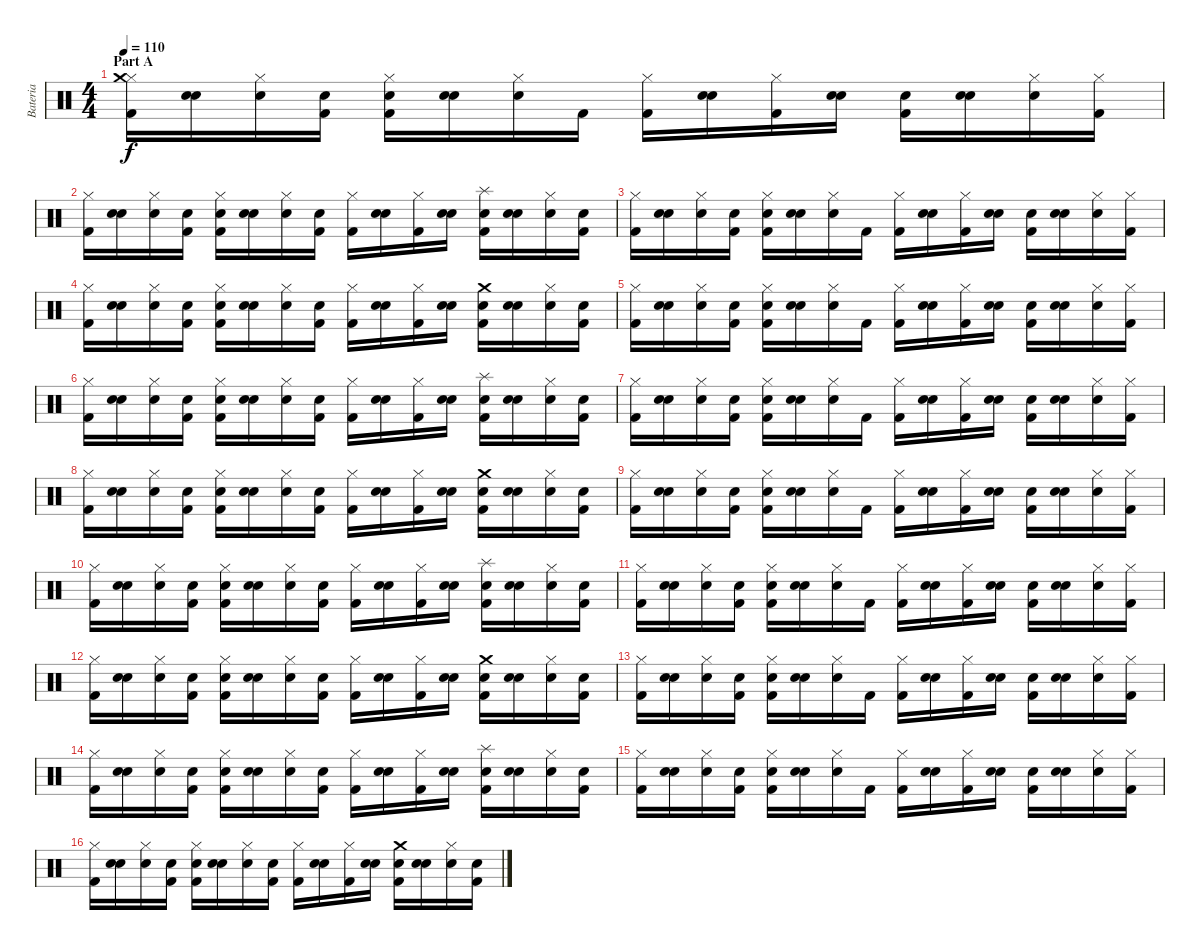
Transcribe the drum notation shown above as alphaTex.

\track ("Bateria" "Bateria") {instrument percussion}
\staff {score}
\articulation defaults
\ts (4 4)
\section ("" "Part A")
\tempo 110
\clef neutral
\ks c
("Kick (hit) 2" "Hi-Hat (closed)" "Crash medium (hit)").16{dy f} ("Snare (hit)" "Snare (hit)").16 ("Snare (hit)" "Hi-Hat (closed)").16 ("Kick (hit) 2" "Snare (hit)").16 ("Kick (hit) 2" "Hi-Hat (closed)" "Electric Snare (hit)").16 ("Snare (hit)" "Snare (hit)").16 ("Snare (hit)" "Hi-Hat (closed)").16 "Kick (hit) 2".16 ("Kick (hit) 2" "Hi-Hat (closed)").16 ("Snare (hit)" "Snare (hit)").16 ("Kick (hit) 2" "Hi-Hat (closed)").16 ("Snare (hit)" "Snare (hit)").16 ("Kick (hit) 2" "Electric Snare (hit)").16 ("Snare (hit)" "Snare (hit)").16 ("Snare (hit)" "Hi-Hat (closed)").16 ("Kick (hit) 2" "Hi-Hat (closed)").16 |
("Kick (hit) 2" "Hi-Hat (closed)").16 ("Snare (hit)" "Snare (hit)").16 ("Snare (hit)" "Hi-Hat (closed)").16 ("Kick (hit) 2" "Snare (hit)").16 ("Kick (hit) 2" "Hi-Hat (closed)" "Electric Snare (hit)").16 ("Snare (hit)" "Snare (hit)").16 ("Snare (hit)" "Hi-Hat (closed)").16 ("Kick (hit) 2" "Snare (hit)").16 ("Kick (hit) 2" "Hi-Hat (closed)").16 ("Snare (hit)" "Snare (hit)").16 ("Kick (hit) 2" "Hi-Hat (closed)").16 ("Snare (hit)" "Snare (hit)").16 ("Kick (hit) 2" "Splash (hit)" "Electric Snare (hit)").16 ("Snare (hit)" "Snare (hit)").16 ("Snare (hit)" "Hi-Hat (closed)").16 ("Kick (hit) 2" "Snare (hit)").16 |
("Kick (hit) 2" "Hi-Hat (closed)").16 ("Snare (hit)" "Snare (hit)").16 ("Snare (hit)" "Hi-Hat (closed)").16 ("Kick (hit) 2" "Snare (hit)").16 ("Kick (hit) 2" "Hi-Hat (closed)" "Electric Snare (hit)").16 ("Snare (hit)" "Snare (hit)").16 ("Snare (hit)" "Hi-Hat (closed)").16 "Kick (hit) 2".16 ("Kick (hit) 2" "Hi-Hat (closed)").16 ("Snare (hit)" "Snare (hit)").16 ("Kick (hit) 2" "Hi-Hat (closed)").16 ("Snare (hit)" "Snare (hit)").16 ("Kick (hit) 2" "Electric Snare (hit)").16 ("Snare (hit)" "Snare (hit)").16 ("Snare (hit)" "Hi-Hat (closed)").16 ("Kick (hit) 2" "Hi-Hat (closed)").16 |
("Kick (hit) 2" "Hi-Hat (closed)").16 ("Snare (hit)" "Snare (hit)").16 ("Snare (hit)" "Hi-Hat (closed)").16 ("Kick (hit) 2" "Snare (hit)").16 ("Kick (hit) 2" "Hi-Hat (closed)" "Electric Snare (hit)").16 ("Snare (hit)" "Snare (hit)").16 ("Snare (hit)" "Hi-Hat (closed)").16 ("Kick (hit) 2" "Snare (hit)").16 ("Kick (hit) 2" "Hi-Hat (closed)").16 ("Snare (hit)" "Snare (hit)").16 ("Kick (hit) 2" "Hi-Hat (closed)").16 ("Snare (hit)" "Snare (hit)").16 ("Kick (hit) 2" "Crash medium (hit)" "Electric Snare (hit)").16 ("Snare (hit)" "Snare (hit)").16 ("Snare (hit)" "Hi-Hat (closed)").16 ("Kick (hit) 2" "Snare (hit)").16 |
("Kick (hit) 2" "Hi-Hat (closed)").16 ("Snare (hit)" "Snare (hit)").16 ("Snare (hit)" "Hi-Hat (closed)").16 ("Kick (hit) 2" "Snare (hit)").16 ("Kick (hit) 2" "Hi-Hat (closed)" "Electric Snare (hit)").16 ("Snare (hit)" "Snare (hit)").16 ("Snare (hit)" "Hi-Hat (closed)").16 "Kick (hit) 2".16 ("Kick (hit) 2" "Hi-Hat (closed)").16 ("Snare (hit)" "Snare (hit)").16 ("Kick (hit) 2" "Hi-Hat (closed)").16 ("Snare (hit)" "Snare (hit)").16 ("Kick (hit) 2" "Electric Snare (hit)").16 ("Snare (hit)" "Snare (hit)").16 ("Snare (hit)" "Hi-Hat (closed)").16 ("Kick (hit) 2" "Hi-Hat (closed)").16 |
("Kick (hit) 2" "Hi-Hat (closed)").16 ("Snare (hit)" "Snare (hit)").16 ("Snare (hit)" "Hi-Hat (closed)").16 ("Kick (hit) 2" "Snare (hit)").16 ("Kick (hit) 2" "Hi-Hat (closed)" "Electric Snare (hit)").16 ("Snare (hit)" "Snare (hit)").16 ("Snare (hit)" "Hi-Hat (closed)").16 ("Kick (hit) 2" "Snare (hit)").16 ("Kick (hit) 2" "Hi-Hat (closed)").16 ("Snare (hit)" "Snare (hit)").16 ("Kick (hit) 2" "Hi-Hat (closed)").16 ("Snare (hit)" "Snare (hit)").16 ("Kick (hit) 2" "Splash (hit)" "Electric Snare (hit)").16 ("Snare (hit)" "Snare (hit)").16 ("Snare (hit)" "Hi-Hat (closed)").16 ("Kick (hit) 2" "Snare (hit)").16 |
("Kick (hit) 2" "Hi-Hat (closed)").16 ("Snare (hit)" "Snare (hit)").16 ("Snare (hit)" "Hi-Hat (closed)").16 ("Kick (hit) 2" "Snare (hit)").16 ("Kick (hit) 2" "Hi-Hat (closed)" "Electric Snare (hit)").16 ("Snare (hit)" "Snare (hit)").16 ("Snare (hit)" "Hi-Hat (closed)").16 "Kick (hit) 2".16 ("Kick (hit) 2" "Hi-Hat (closed)").16 ("Snare (hit)" "Snare (hit)").16 ("Kick (hit) 2" "Hi-Hat (closed)").16 ("Snare (hit)" "Snare (hit)").16 ("Kick (hit) 2" "Electric Snare (hit)").16 ("Snare (hit)" "Snare (hit)").16 ("Snare (hit)" "Hi-Hat (closed)").16 ("Kick (hit) 2" "Hi-Hat (closed)").16 |
("Kick (hit) 2" "Hi-Hat (closed)").16 ("Snare (hit)" "Snare (hit)").16 ("Snare (hit)" "Hi-Hat (closed)").16 ("Kick (hit) 2" "Snare (hit)").16 ("Kick (hit) 2" "Hi-Hat (closed)" "Electric Snare (hit)").16 ("Snare (hit)" "Snare (hit)").16 ("Snare (hit)" "Hi-Hat (closed)").16 ("Kick (hit) 2" "Snare (hit)").16 ("Kick (hit) 2" "Hi-Hat (closed)").16 ("Snare (hit)" "Snare (hit)").16 ("Kick (hit) 2" "Hi-Hat (closed)").16 ("Snare (hit)" "Snare (hit)").16 ("Kick (hit) 2" "Crash medium (hit)" "Electric Snare (hit)").16 ("Snare (hit)" "Snare (hit)").16 ("Snare (hit)" "Hi-Hat (closed)").16 ("Kick (hit) 2" "Snare (hit)").16 |
("Kick (hit) 2" "Hi-Hat (closed)").16 ("Snare (hit)" "Snare (hit)").16 ("Snare (hit)" "Hi-Hat (closed)").16 ("Kick (hit) 2" "Snare (hit)").16 ("Kick (hit) 2" "Hi-Hat (closed)" "Electric Snare (hit)").16 ("Snare (hit)" "Snare (hit)").16 ("Snare (hit)" "Hi-Hat (closed)").16 "Kick (hit) 2".16 ("Kick (hit) 2" "Hi-Hat (closed)").16 ("Snare (hit)" "Snare (hit)").16 ("Kick (hit) 2" "Hi-Hat (closed)").16 ("Snare (hit)" "Snare (hit)").16 ("Kick (hit) 2" "Electric Snare (hit)").16 ("Snare (hit)" "Snare (hit)").16 ("Snare (hit)" "Hi-Hat (closed)").16 ("Kick (hit) 2" "Hi-Hat (closed)").16 |
("Kick (hit) 2" "Hi-Hat (closed)").16 ("Snare (hit)" "Snare (hit)").16 ("Snare (hit)" "Hi-Hat (closed)").16 ("Kick (hit) 2" "Snare (hit)").16 ("Kick (hit) 2" "Hi-Hat (closed)" "Electric Snare (hit)").16 ("Snare (hit)" "Snare (hit)").16 ("Snare (hit)" "Hi-Hat (closed)").16 ("Kick (hit) 2" "Snare (hit)").16 ("Kick (hit) 2" "Hi-Hat (closed)").16 ("Snare (hit)" "Snare (hit)").16 ("Kick (hit) 2" "Hi-Hat (closed)").16 ("Snare (hit)" "Snare (hit)").16 ("Kick (hit) 2" "Splash (hit)" "Electric Snare (hit)").16 ("Snare (hit)" "Snare (hit)").16 ("Snare (hit)" "Hi-Hat (closed)").16 ("Kick (hit) 2" "Snare (hit)").16 |
("Kick (hit) 2" "Hi-Hat (closed)").16 ("Snare (hit)" "Snare (hit)").16 ("Snare (hit)" "Hi-Hat (closed)").16 ("Kick (hit) 2" "Snare (hit)").16 ("Kick (hit) 2" "Hi-Hat (closed)" "Electric Snare (hit)").16 ("Snare (hit)" "Snare (hit)").16 ("Snare (hit)" "Hi-Hat (closed)").16 "Kick (hit) 2".16 ("Kick (hit) 2" "Hi-Hat (closed)").16 ("Snare (hit)" "Snare (hit)").16 ("Kick (hit) 2" "Hi-Hat (closed)").16 ("Snare (hit)" "Snare (hit)").16 ("Kick (hit) 2" "Electric Snare (hit)").16 ("Snare (hit)" "Snare (hit)").16 ("Snare (hit)" "Hi-Hat (closed)").16 ("Kick (hit) 2" "Hi-Hat (closed)").16 |
("Kick (hit) 2" "Hi-Hat (closed)").16 ("Snare (hit)" "Snare (hit)").16 ("Snare (hit)" "Hi-Hat (closed)").16 ("Kick (hit) 2" "Snare (hit)").16 ("Kick (hit) 2" "Hi-Hat (closed)" "Electric Snare (hit)").16 ("Snare (hit)" "Snare (hit)").16 ("Snare (hit)" "Hi-Hat (closed)").16 ("Kick (hit) 2" "Snare (hit)").16 ("Kick (hit) 2" "Hi-Hat (closed)").16 ("Snare (hit)" "Snare (hit)").16 ("Kick (hit) 2" "Hi-Hat (closed)").16 ("Snare (hit)" "Snare (hit)").16 ("Kick (hit) 2" "Crash medium (hit)" "Electric Snare (hit)").16 ("Snare (hit)" "Snare (hit)").16 ("Snare (hit)" "Hi-Hat (closed)").16 ("Kick (hit) 2" "Snare (hit)").16 |
("Kick (hit) 2" "Hi-Hat (closed)").16 ("Snare (hit)" "Snare (hit)").16 ("Snare (hit)" "Hi-Hat (closed)").16 ("Kick (hit) 2" "Snare (hit)").16 ("Kick (hit) 2" "Hi-Hat (closed)" "Electric Snare (hit)").16 ("Snare (hit)" "Snare (hit)").16 ("Snare (hit)" "Hi-Hat (closed)").16 "Kick (hit) 2".16 ("Kick (hit) 2" "Hi-Hat (closed)").16 ("Snare (hit)" "Snare (hit)").16 ("Kick (hit) 2" "Hi-Hat (closed)").16 ("Snare (hit)" "Snare (hit)").16 ("Kick (hit) 2" "Electric Snare (hit)").16 ("Snare (hit)" "Snare (hit)").16 ("Snare (hit)" "Hi-Hat (closed)").16 ("Kick (hit) 2" "Hi-Hat (closed)").16 |
("Kick (hit) 2" "Hi-Hat (closed)").16 ("Snare (hit)" "Snare (hit)").16 ("Snare (hit)" "Hi-Hat (closed)").16 ("Kick (hit) 2" "Snare (hit)").16 ("Kick (hit) 2" "Hi-Hat (closed)" "Electric Snare (hit)").16 ("Snare (hit)" "Snare (hit)").16 ("Snare (hit)" "Hi-Hat (closed)").16 ("Kick (hit) 2" "Snare (hit)").16 ("Kick (hit) 2" "Hi-Hat (closed)").16 ("Snare (hit)" "Snare (hit)").16 ("Kick (hit) 2" "Hi-Hat (closed)").16 ("Snare (hit)" "Snare (hit)").16 ("Kick (hit) 2" "Splash (hit)" "Electric Snare (hit)").16 ("Snare (hit)" "Snare (hit)").16 ("Snare (hit)" "Hi-Hat (closed)").16 ("Kick (hit) 2" "Snare (hit)").16 |
("Kick (hit) 2" "Hi-Hat (closed)").16 ("Snare (hit)" "Snare (hit)").16 ("Snare (hit)" "Hi-Hat (closed)").16 ("Kick (hit) 2" "Snare (hit)").16 ("Kick (hit) 2" "Hi-Hat (closed)" "Electric Snare (hit)").16 ("Snare (hit)" "Snare (hit)").16 ("Snare (hit)" "Hi-Hat (closed)").16 "Kick (hit) 2".16 ("Kick (hit) 2" "Hi-Hat (closed)").16 ("Snare (hit)" "Snare (hit)").16 ("Kick (hit) 2" "Hi-Hat (closed)").16 ("Snare (hit)" "Snare (hit)").16 ("Kick (hit) 2" "Electric Snare (hit)").16 ("Snare (hit)" "Snare (hit)").16 ("Snare (hit)" "Hi-Hat (closed)").16 ("Kick (hit) 2" "Hi-Hat (closed)").16 |
("Kick (hit) 2" "Hi-Hat (closed)").16 ("Snare (hit)" "Snare (hit)").16 ("Snare (hit)" "Hi-Hat (closed)").16 ("Kick (hit) 2" "Snare (hit)").16 ("Kick (hit) 2" "Hi-Hat (closed)" "Electric Snare (hit)").16 ("Snare (hit)" "Snare (hit)").16 ("Snare (hit)" "Hi-Hat (closed)").16 ("Kick (hit) 2" "Snare (hit)").16 ("Kick (hit) 2" "Hi-Hat (closed)").16 ("Snare (hit)" "Snare (hit)").16 ("Kick (hit) 2" "Hi-Hat (closed)").16 ("Snare (hit)" "Snare (hit)").16 ("Kick (hit) 2" "Crash medium (hit)" "Electric Snare (hit)").16 ("Snare (hit)" "Snare (hit)").16 ("Snare (hit)" "Hi-Hat (closed)").16 ("Kick (hit) 2" "Snare (hit)").16
